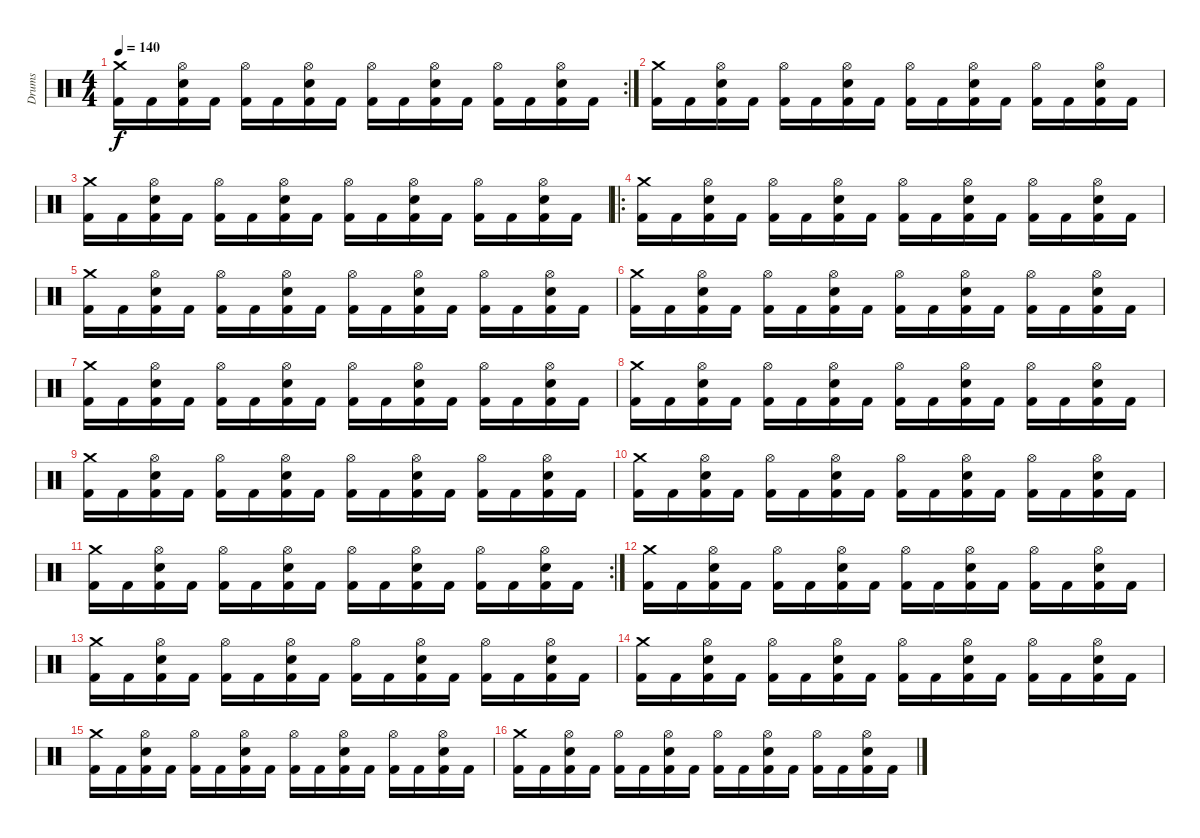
\track ("Drums" "Drums") {instrument percussion}
\staff {score}
\articulation defaults
\rc 2
\ts (4 4)
\tempo 140
\clef neutral
\ks c
("Crash medium (hit)" "Kick (hit) 2").16{dy f} "Kick (hit) 2".16 ("Hi-Hat (open)" "Electric Snare (hit)" "Kick (hit) 2").16 "Kick (hit) 2".16 ("Hi-Hat (open)" "Kick (hit) 2").16 "Kick (hit) 2".16 ("Hi-Hat (open)" "Electric Snare (hit)" "Kick (hit) 2").16 "Kick (hit) 2".16 ("Hi-Hat (open)" "Kick (hit) 2").16 "Kick (hit) 2".16 ("Hi-Hat (open)" "Electric Snare (hit)" "Kick (hit) 2").16 "Kick (hit) 2".16 ("Hi-Hat (open)" "Kick (hit) 2").16 "Kick (hit) 2".16 ("Hi-Hat (open)" "Electric Snare (hit)" "Kick (hit) 2").16 "Kick (hit) 2".16 |
("Crash medium (hit)" "Kick (hit) 2").16 "Kick (hit) 2".16 ("Hi-Hat (open)" "Electric Snare (hit)" "Kick (hit) 2").16 "Kick (hit) 2".16 ("Hi-Hat (open)" "Kick (hit) 2").16 "Kick (hit) 2".16 ("Hi-Hat (open)" "Electric Snare (hit)" "Kick (hit) 2").16 "Kick (hit) 2".16 ("Hi-Hat (open)" "Kick (hit) 2").16 "Kick (hit) 2".16 ("Hi-Hat (open)" "Electric Snare (hit)" "Kick (hit) 2").16 "Kick (hit) 2".16 ("Hi-Hat (open)" "Kick (hit) 2").16 "Kick (hit) 2".16 ("Hi-Hat (open)" "Electric Snare (hit)" "Kick (hit) 2").16 "Kick (hit) 2".16 |
("Crash medium (hit)" "Kick (hit) 2").16 "Kick (hit) 2".16 ("Hi-Hat (open)" "Electric Snare (hit)" "Kick (hit) 2").16 "Kick (hit) 2".16 ("Hi-Hat (open)" "Kick (hit) 2").16 "Kick (hit) 2".16 ("Hi-Hat (open)" "Electric Snare (hit)" "Kick (hit) 2").16 "Kick (hit) 2".16 ("Hi-Hat (open)" "Kick (hit) 2").16 "Kick (hit) 2".16 ("Hi-Hat (open)" "Electric Snare (hit)" "Kick (hit) 2").16 "Kick (hit) 2".16 ("Hi-Hat (open)" "Kick (hit) 2").16 "Kick (hit) 2".16 ("Hi-Hat (open)" "Electric Snare (hit)" "Kick (hit) 2").16 "Kick (hit) 2".16 |
\ro
("Crash medium (hit)" "Kick (hit) 2").16 "Kick (hit) 2".16 ("Hi-Hat (open)" "Electric Snare (hit)" "Kick (hit) 2").16 "Kick (hit) 2".16 ("Hi-Hat (open)" "Kick (hit) 2").16 "Kick (hit) 2".16 ("Hi-Hat (open)" "Electric Snare (hit)" "Kick (hit) 2").16 "Kick (hit) 2".16 ("Hi-Hat (open)" "Kick (hit) 2").16 "Kick (hit) 2".16 ("Hi-Hat (open)" "Electric Snare (hit)" "Kick (hit) 2").16 "Kick (hit) 2".16 ("Hi-Hat (open)" "Kick (hit) 2").16 "Kick (hit) 2".16 ("Hi-Hat (open)" "Electric Snare (hit)" "Kick (hit) 2").16 "Kick (hit) 2".16 |
("Crash medium (hit)" "Kick (hit) 2").16 "Kick (hit) 2".16 ("Hi-Hat (open)" "Electric Snare (hit)" "Kick (hit) 2").16 "Kick (hit) 2".16 ("Hi-Hat (open)" "Kick (hit) 2").16 "Kick (hit) 2".16 ("Hi-Hat (open)" "Electric Snare (hit)" "Kick (hit) 2").16 "Kick (hit) 2".16 ("Hi-Hat (open)" "Kick (hit) 2").16 "Kick (hit) 2".16 ("Hi-Hat (open)" "Electric Snare (hit)" "Kick (hit) 2").16 "Kick (hit) 2".16 ("Hi-Hat (open)" "Kick (hit) 2").16 "Kick (hit) 2".16 ("Hi-Hat (open)" "Electric Snare (hit)" "Kick (hit) 2").16 "Kick (hit) 2".16 |
("Crash medium (hit)" "Kick (hit) 2").16 "Kick (hit) 2".16 ("Hi-Hat (open)" "Electric Snare (hit)" "Kick (hit) 2").16 "Kick (hit) 2".16 ("Hi-Hat (open)" "Kick (hit) 2").16 "Kick (hit) 2".16 ("Hi-Hat (open)" "Electric Snare (hit)" "Kick (hit) 2").16 "Kick (hit) 2".16 ("Hi-Hat (open)" "Kick (hit) 2").16 "Kick (hit) 2".16 ("Hi-Hat (open)" "Electric Snare (hit)" "Kick (hit) 2").16 "Kick (hit) 2".16 ("Hi-Hat (open)" "Kick (hit) 2").16 "Kick (hit) 2".16 ("Hi-Hat (open)" "Electric Snare (hit)" "Kick (hit) 2").16 "Kick (hit) 2".16 |
("Crash medium (hit)" "Kick (hit) 2").16 "Kick (hit) 2".16 ("Hi-Hat (open)" "Electric Snare (hit)" "Kick (hit) 2").16 "Kick (hit) 2".16 ("Hi-Hat (open)" "Kick (hit) 2").16 "Kick (hit) 2".16 ("Hi-Hat (open)" "Electric Snare (hit)" "Kick (hit) 2").16 "Kick (hit) 2".16 ("Hi-Hat (open)" "Kick (hit) 2").16 "Kick (hit) 2".16 ("Hi-Hat (open)" "Electric Snare (hit)" "Kick (hit) 2").16 "Kick (hit) 2".16 ("Hi-Hat (open)" "Kick (hit) 2").16 "Kick (hit) 2".16 ("Hi-Hat (open)" "Electric Snare (hit)" "Kick (hit) 2").16 "Kick (hit) 2".16 |
("Crash medium (hit)" "Kick (hit) 2").16 "Kick (hit) 2".16 ("Hi-Hat (open)" "Electric Snare (hit)" "Kick (hit) 2").16 "Kick (hit) 2".16 ("Hi-Hat (open)" "Kick (hit) 2").16 "Kick (hit) 2".16 ("Hi-Hat (open)" "Electric Snare (hit)" "Kick (hit) 2").16 "Kick (hit) 2".16 ("Hi-Hat (open)" "Kick (hit) 2").16 "Kick (hit) 2".16 ("Hi-Hat (open)" "Electric Snare (hit)" "Kick (hit) 2").16 "Kick (hit) 2".16 ("Hi-Hat (open)" "Kick (hit) 2").16 "Kick (hit) 2".16 ("Hi-Hat (open)" "Electric Snare (hit)" "Kick (hit) 2").16 "Kick (hit) 2".16 |
("Crash medium (hit)" "Kick (hit) 2").16 "Kick (hit) 2".16 ("Hi-Hat (open)" "Electric Snare (hit)" "Kick (hit) 2").16 "Kick (hit) 2".16 ("Hi-Hat (open)" "Kick (hit) 2").16 "Kick (hit) 2".16 ("Hi-Hat (open)" "Electric Snare (hit)" "Kick (hit) 2").16 "Kick (hit) 2".16 ("Hi-Hat (open)" "Kick (hit) 2").16 "Kick (hit) 2".16 ("Hi-Hat (open)" "Electric Snare (hit)" "Kick (hit) 2").16 "Kick (hit) 2".16 ("Hi-Hat (open)" "Kick (hit) 2").16 "Kick (hit) 2".16 ("Hi-Hat (open)" "Electric Snare (hit)" "Kick (hit) 2").16 "Kick (hit) 2".16 |
("Crash medium (hit)" "Kick (hit) 2").16 "Kick (hit) 2".16 ("Hi-Hat (open)" "Electric Snare (hit)" "Kick (hit) 2").16 "Kick (hit) 2".16 ("Hi-Hat (open)" "Kick (hit) 2").16 "Kick (hit) 2".16 ("Hi-Hat (open)" "Electric Snare (hit)" "Kick (hit) 2").16 "Kick (hit) 2".16 ("Hi-Hat (open)" "Kick (hit) 2").16 "Kick (hit) 2".16 ("Hi-Hat (open)" "Electric Snare (hit)" "Kick (hit) 2").16 "Kick (hit) 2".16 ("Hi-Hat (open)" "Kick (hit) 2").16 "Kick (hit) 2".16 ("Hi-Hat (open)" "Electric Snare (hit)" "Kick (hit) 2").16 "Kick (hit) 2".16 |
\rc 2
("Crash medium (hit)" "Kick (hit) 2").16 "Kick (hit) 2".16 ("Hi-Hat (open)" "Electric Snare (hit)" "Kick (hit) 2").16 "Kick (hit) 2".16 ("Hi-Hat (open)" "Kick (hit) 2").16 "Kick (hit) 2".16 ("Hi-Hat (open)" "Electric Snare (hit)" "Kick (hit) 2").16 "Kick (hit) 2".16 ("Hi-Hat (open)" "Kick (hit) 2").16 "Kick (hit) 2".16 ("Hi-Hat (open)" "Electric Snare (hit)" "Kick (hit) 2").16 "Kick (hit) 2".16 ("Hi-Hat (open)" "Kick (hit) 2").16 "Kick (hit) 2".16 ("Hi-Hat (open)" "Electric Snare (hit)" "Kick (hit) 2").16 "Kick (hit) 2".16 |
("Crash medium (hit)" "Kick (hit) 2").16 "Kick (hit) 2".16 ("Hi-Hat (open)" "Electric Snare (hit)" "Kick (hit) 2").16 "Kick (hit) 2".16 ("Hi-Hat (open)" "Kick (hit) 2").16 "Kick (hit) 2".16 ("Hi-Hat (open)" "Electric Snare (hit)" "Kick (hit) 2").16 "Kick (hit) 2".16 ("Hi-Hat (open)" "Kick (hit) 2").16 "Kick (hit) 2".16 ("Hi-Hat (open)" "Electric Snare (hit)" "Kick (hit) 2").16 "Kick (hit) 2".16 ("Hi-Hat (open)" "Kick (hit) 2").16 "Kick (hit) 2".16 ("Hi-Hat (open)" "Electric Snare (hit)" "Kick (hit) 2").16 "Kick (hit) 2".16 |
("Crash medium (hit)" "Kick (hit) 2").16 "Kick (hit) 2".16 ("Hi-Hat (open)" "Electric Snare (hit)" "Kick (hit) 2").16 "Kick (hit) 2".16 ("Hi-Hat (open)" "Kick (hit) 2").16 "Kick (hit) 2".16 ("Hi-Hat (open)" "Electric Snare (hit)" "Kick (hit) 2").16 "Kick (hit) 2".16 ("Hi-Hat (open)" "Kick (hit) 2").16 "Kick (hit) 2".16 ("Hi-Hat (open)" "Electric Snare (hit)" "Kick (hit) 2").16 "Kick (hit) 2".16 ("Hi-Hat (open)" "Kick (hit) 2").16 "Kick (hit) 2".16 ("Hi-Hat (open)" "Electric Snare (hit)" "Kick (hit) 2").16 "Kick (hit) 2".16 |
("Crash medium (hit)" "Kick (hit) 2").16 "Kick (hit) 2".16 ("Hi-Hat (open)" "Electric Snare (hit)" "Kick (hit) 2").16 "Kick (hit) 2".16 ("Hi-Hat (open)" "Kick (hit) 2").16 "Kick (hit) 2".16 ("Hi-Hat (open)" "Electric Snare (hit)" "Kick (hit) 2").16 "Kick (hit) 2".16 ("Hi-Hat (open)" "Kick (hit) 2").16 "Kick (hit) 2".16 ("Hi-Hat (open)" "Electric Snare (hit)" "Kick (hit) 2").16 "Kick (hit) 2".16 ("Hi-Hat (open)" "Kick (hit) 2").16 "Kick (hit) 2".16 ("Hi-Hat (open)" "Electric Snare (hit)" "Kick (hit) 2").16 "Kick (hit) 2".16 |
("Crash medium (hit)" "Kick (hit) 2").16 "Kick (hit) 2".16 ("Hi-Hat (open)" "Electric Snare (hit)" "Kick (hit) 2").16 "Kick (hit) 2".16 ("Hi-Hat (open)" "Kick (hit) 2").16 "Kick (hit) 2".16 ("Hi-Hat (open)" "Electric Snare (hit)" "Kick (hit) 2").16 "Kick (hit) 2".16 ("Hi-Hat (open)" "Kick (hit) 2").16 "Kick (hit) 2".16 ("Hi-Hat (open)" "Electric Snare (hit)" "Kick (hit) 2").16 "Kick (hit) 2".16 ("Hi-Hat (open)" "Kick (hit) 2").16 "Kick (hit) 2".16 ("Hi-Hat (open)" "Electric Snare (hit)" "Kick (hit) 2").16 "Kick (hit) 2".16 |
("Crash medium (hit)" "Kick (hit) 2").16 "Kick (hit) 2".16 ("Hi-Hat (open)" "Electric Snare (hit)" "Kick (hit) 2").16 "Kick (hit) 2".16 ("Hi-Hat (open)" "Kick (hit) 2").16 "Kick (hit) 2".16 ("Hi-Hat (open)" "Electric Snare (hit)" "Kick (hit) 2").16 "Kick (hit) 2".16 ("Hi-Hat (open)" "Kick (hit) 2").16 "Kick (hit) 2".16 ("Hi-Hat (open)" "Electric Snare (hit)" "Kick (hit) 2").16 "Kick (hit) 2".16 ("Hi-Hat (open)" "Kick (hit) 2").16 "Kick (hit) 2".16 ("Hi-Hat (open)" "Electric Snare (hit)" "Kick (hit) 2").16 "Kick (hit) 2".16
